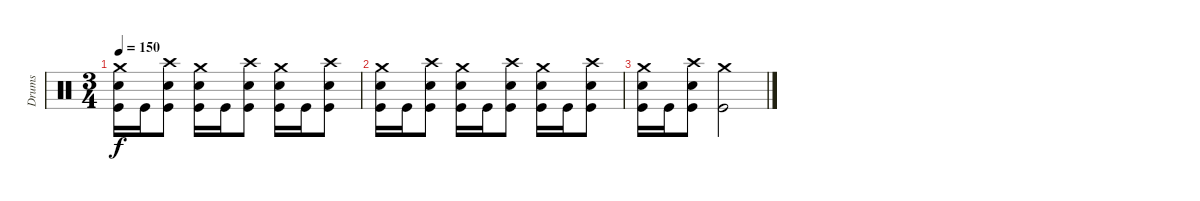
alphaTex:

\track ("Drums" "Drums") {instrument percussion}
\staff {score}
\articulation defaults
\ts (3 4)
\tempo 150
\clef neutral
\ks c
("Crash medium (hit)" "Snare (hit) 2" "Kick (hit)").16{dy f} "Kick (hit)".16 ("Crash high (hit)" "Snare (hit) 2" "Kick (hit)").8 ("Crash medium (hit)" "Snare (hit) 2" "Kick (hit)").16 "Kick (hit)".16 ("Crash high (hit)" "Snare (hit) 2" "Kick (hit)").8 ("Crash medium (hit)" "Snare (hit) 2" "Kick (hit)").16 "Kick (hit)".16 ("Crash high (hit)" "Snare (hit) 2" "Kick (hit)").8 |
("Crash medium (hit)" "Snare (hit) 2" "Kick (hit)").16 "Kick (hit)".16 ("Crash high (hit)" "Snare (hit) 2" "Kick (hit)").8 ("Crash medium (hit)" "Snare (hit) 2" "Kick (hit)").16 "Kick (hit)".16 ("Crash high (hit)" "Snare (hit) 2" "Kick (hit)").8 ("Crash medium (hit)" "Snare (hit) 2" "Kick (hit)").16 "Kick (hit)".16 ("Crash high (hit)" "Snare (hit) 2" "Kick (hit)").8 |
("Crash medium (hit)" "Snare (hit) 2" "Kick (hit)").16 "Kick (hit)".16 ("Crash high (hit)" "Snare (hit) 2" "Kick (hit)").8 ("Crash medium (hit)" "Kick (hit)").2
